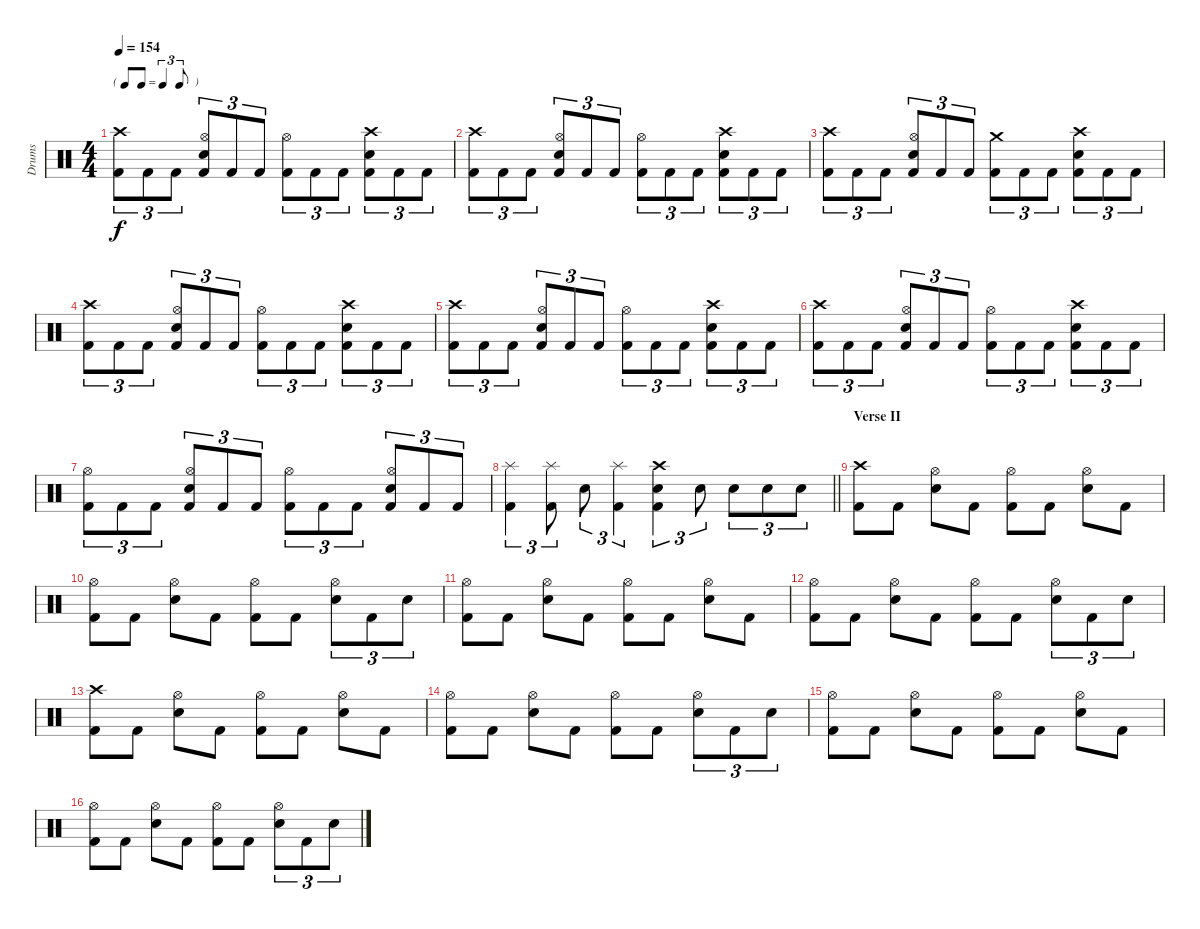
\track ("Drums" "Drums") {instrument percussion}
\staff {score}
\articulation defaults
\ts (4 4)
\tf triplet8th
\tempo 154
\clef neutral
\ks c
("Crash high (hit)" "Kick (hit) 2").8{tu (3 2) dy f} "Kick (hit) 2".8{tu (3 2)} "Kick (hit) 2".8{tu (3 2)} ("Hi-Hat (open)" "Snare (hit) 2" "Kick (hit) 2").8{tu (3 2)} "Kick (hit) 2".8{tu (3 2)} "Kick (hit) 2".8{tu (3 2)} ("Hi-Hat (open)" "Kick (hit) 2").8{tu (3 2)} "Kick (hit) 2".8{tu (3 2)} "Kick (hit) 2".8{tu (3 2)} ("Crash high (hit)" "Snare (hit) 2" "Kick (hit) 2").8{tu (3 2)} "Kick (hit) 2".8{tu (3 2)} "Kick (hit) 2".8{tu (3 2)} |
("Crash high (hit)" "Kick (hit) 2").8{tu (3 2)} "Kick (hit) 2".8{tu (3 2)} "Kick (hit) 2".8{tu (3 2)} ("Hi-Hat (open)" "Snare (hit) 2" "Kick (hit) 2").8{tu (3 2)} "Kick (hit) 2".8{tu (3 2)} "Kick (hit) 2".8{tu (3 2)} ("Hi-Hat (open)" "Kick (hit) 2").8{tu (3 2)} "Kick (hit) 2".8{tu (3 2)} "Kick (hit) 2".8{tu (3 2)} ("Crash high (hit)" "Snare (hit) 2" "Kick (hit) 2").8{tu (3 2)} "Kick (hit) 2".8{tu (3 2)} "Kick (hit) 2".8{tu (3 2)} |
("Crash high (hit)" "Kick (hit) 2").8{tu (3 2)} "Kick (hit) 2".8{tu (3 2)} "Kick (hit) 2".8{tu (3 2)} ("Hi-Hat (open)" "Snare (hit) 2" "Kick (hit) 2").8{tu (3 2)} "Kick (hit) 2".8{tu (3 2)} "Kick (hit) 2".8{tu (3 2)} ("Crash medium (hit)" "Kick (hit) 2").8{tu (3 2)} "Kick (hit) 2".8{tu (3 2)} "Kick (hit) 2".8{tu (3 2)} ("Crash high (hit)" "Snare (hit) 2" "Kick (hit) 2").8{tu (3 2)} "Kick (hit) 2".8{tu (3 2)} "Kick (hit) 2".8{tu (3 2)} |
("Crash high (hit)" "Kick (hit) 2").8{tu (3 2)} "Kick (hit) 2".8{tu (3 2)} "Kick (hit) 2".8{tu (3 2)} ("Hi-Hat (open)" "Snare (hit) 2" "Kick (hit) 2").8{tu (3 2)} "Kick (hit) 2".8{tu (3 2)} "Kick (hit) 2".8{tu (3 2)} ("Hi-Hat (open)" "Kick (hit) 2").8{tu (3 2)} "Kick (hit) 2".8{tu (3 2)} "Kick (hit) 2".8{tu (3 2)} ("Crash high (hit)" "Snare (hit) 2" "Kick (hit) 2").8{tu (3 2)} "Kick (hit) 2".8{tu (3 2)} "Kick (hit) 2".8{tu (3 2)} |
("Crash high (hit)" "Kick (hit) 2").8{tu (3 2)} "Kick (hit) 2".8{tu (3 2)} "Kick (hit) 2".8{tu (3 2)} ("Hi-Hat (open)" "Snare (hit) 2" "Kick (hit) 2").8{tu (3 2)} "Kick (hit) 2".8{tu (3 2)} "Kick (hit) 2".8{tu (3 2)} ("Hi-Hat (open)" "Kick (hit) 2").8{tu (3 2)} "Kick (hit) 2".8{tu (3 2)} "Kick (hit) 2".8{tu (3 2)} ("Crash high (hit)" "Snare (hit) 2" "Kick (hit) 2").8{tu (3 2)} "Kick (hit) 2".8{tu (3 2)} "Kick (hit) 2".8{tu (3 2)} |
("Crash high (hit)" "Kick (hit) 2").8{tu (3 2)} "Kick (hit) 2".8{tu (3 2)} "Kick (hit) 2".8{tu (3 2)} ("Hi-Hat (open)" "Snare (hit) 2" "Kick (hit) 2").8{tu (3 2)} "Kick (hit) 2".8{tu (3 2)} "Kick (hit) 2".8{tu (3 2)} ("Hi-Hat (open)" "Kick (hit) 2").8{tu (3 2)} "Kick (hit) 2".8{tu (3 2)} "Kick (hit) 2".8{tu (3 2)} ("Crash high (hit)" "Snare (hit) 2" "Kick (hit) 2").8{tu (3 2)} "Kick (hit) 2".8{tu (3 2)} "Kick (hit) 2".8{tu (3 2)} |
("Hi-Hat (open)" "Kick (hit) 2").8{tu (3 2)} "Kick (hit) 2".8{tu (3 2)} "Kick (hit) 2".8{tu (3 2)} ("Hi-Hat (open)" "Snare (hit) 2" "Kick (hit) 2").8{tu (3 2)} "Kick (hit) 2".8{tu (3 2)} "Kick (hit) 2".8{tu (3 2)} ("Hi-Hat (open)" "Kick (hit) 2").8{tu (3 2)} "Kick (hit) 2".8{tu (3 2)} "Kick (hit) 2".8{tu (3 2)} ("Hi-Hat (open)" "Snare (hit) 2" "Kick (hit) 2").8{tu (3 2)} "Kick (hit) 2".8{tu (3 2)} "Kick (hit) 2".8{tu (3 2)} |
\barLineRight lightlight
("Splash (hit)" "Kick (hit) 2").4{tu (3 2)} ("Splash (hit)" "Kick (hit) 2").8{tu (3 2)} "Snare (hit) 2".8{tu (3 2)} ("Splash (hit)" "Kick (hit) 2").4{tu (3 2)} ("Crash high (hit)" "Snare (hit) 2" "Kick (hit) 2").4{tu (3 2)} "Snare (hit) 2".8{tu (3 2)} "Snare (hit) 2".8{tu (3 2)} "Snare (hit) 2".8{tu (3 2)} "Snare (hit) 2".8{tu (3 2)} |
\section ("" "Verse II")
("Crash high (hit)" "Kick (hit) 2").8 "Kick (hit) 2".8 ("Hi-Hat (open)" "Snare (hit) 2").8 "Kick (hit) 2".8 ("Hi-Hat (open)" "Kick (hit) 2").8 "Kick (hit) 2".8 ("Hi-Hat (open)" "Snare (hit) 2").8 "Kick (hit) 2".8 |
("Hi-Hat (open)" "Kick (hit) 2").8 "Kick (hit) 2".8 ("Hi-Hat (open)" "Snare (hit) 2").8 "Kick (hit) 2".8 ("Hi-Hat (open)" "Kick (hit) 2").8 "Kick (hit) 2".8 ("Hi-Hat (open)" "Snare (hit) 2").8{tu (3 2)} "Kick (hit) 2".8{tu (3 2)} "Snare (hit) 2".8{tu (3 2)} |
("Hi-Hat (open)" "Kick (hit) 2").8 "Kick (hit) 2".8 ("Hi-Hat (open)" "Snare (hit) 2").8 "Kick (hit) 2".8 ("Hi-Hat (open)" "Kick (hit) 2").8 "Kick (hit) 2".8 ("Hi-Hat (open)" "Snare (hit) 2").8 "Kick (hit) 2".8 |
("Hi-Hat (open)" "Kick (hit) 2").8 "Kick (hit) 2".8 ("Hi-Hat (open)" "Snare (hit) 2").8 "Kick (hit) 2".8 ("Hi-Hat (open)" "Kick (hit) 2").8 "Kick (hit) 2".8 ("Hi-Hat (open)" "Snare (hit) 2").8{tu (3 2)} "Kick (hit) 2".8{tu (3 2)} "Snare (hit) 2".8{tu (3 2)} |
("Crash high (hit)" "Kick (hit) 2").8 "Kick (hit) 2".8 ("Hi-Hat (open)" "Snare (hit) 2").8 "Kick (hit) 2".8 ("Hi-Hat (open)" "Kick (hit) 2").8 "Kick (hit) 2".8 ("Hi-Hat (open)" "Snare (hit) 2").8 "Kick (hit) 2".8 |
("Hi-Hat (open)" "Kick (hit) 2").8 "Kick (hit) 2".8 ("Hi-Hat (open)" "Snare (hit) 2").8 "Kick (hit) 2".8 ("Hi-Hat (open)" "Kick (hit) 2").8 "Kick (hit) 2".8 ("Hi-Hat (open)" "Snare (hit) 2").8{tu (3 2)} "Kick (hit) 2".8{tu (3 2)} "Snare (hit) 2".8{tu (3 2)} |
("Hi-Hat (open)" "Kick (hit) 2").8 "Kick (hit) 2".8 ("Hi-Hat (open)" "Snare (hit) 2").8 "Kick (hit) 2".8 ("Hi-Hat (open)" "Kick (hit) 2").8 "Kick (hit) 2".8 ("Hi-Hat (open)" "Snare (hit) 2").8 "Kick (hit) 2".8 |
("Hi-Hat (open)" "Kick (hit) 2").8 "Kick (hit) 2".8 ("Hi-Hat (open)" "Snare (hit) 2").8 "Kick (hit) 2".8 ("Hi-Hat (open)" "Kick (hit) 2").8 "Kick (hit) 2".8 ("Hi-Hat (open)" "Snare (hit) 2").8{tu (3 2)} "Kick (hit) 2".8{tu (3 2)} "Snare (hit) 2".8{tu (3 2)}
